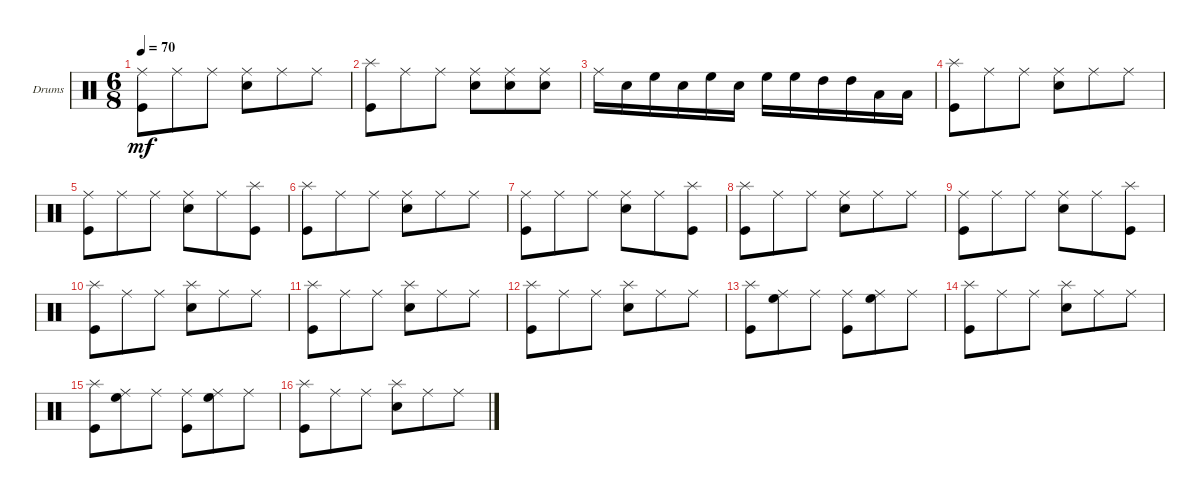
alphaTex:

\defaultSystemsLayout 4
\bracketExtendMode groupsimilarinstruments
\firstSystemTrackNameOrientation horizontal
\otherSystemsTrackNameOrientation horizontal
\track ("Drumkit" "Drums") {instrument percussion}
\staff {score}
\articulation defaults
\ts (6 8)
\tempo 70
\clef neutral
\scale
0.333333
\ks c
("Ride (middle)" "Kick (hit)").8{dy mf} "Ride (middle)".8 "Ride (middle)".8 ("Ride (middle)" "Snare (hit) 2").8 "Ride (middle)".8 "Ride (middle)".8 |
\scale
0.333333 ("Kick (hit)" "Splash (hit)").8 "Ride (middle)".8 "Ride (middle)".8 ("Ride (middle)" "Snare (hit) 2").8 ("Ride (middle)" "Snare (hit) 2").8 ("Ride (middle)" "Snare (hit) 2").8 |
\scale
0.333333 "Ride (middle)".16 "Snare (hit) 2".16 "High Floor Tom (hit)".16 "Snare (hit) 2".16 "High Floor Tom (hit)".16 "Snare (hit) 2".16 "High Floor Tom (hit)".16 "High Floor Tom (hit)".16 "High Tom (hit)".16 "High Tom (hit)".16 "Low Tom (hit)".16 "Low Tom (hit)".16 |
\scale
0.333333 ("Splash (hit)" "Kick (hit)").8 "Ride (middle)".8 "Ride (middle)".8 ("Ride (middle)" "Snare (hit) 2").8 "Ride (middle)".8 "Ride (middle)".8 |
\scale
0.333333 ("Ride (middle)" "Kick (hit)").8 "Ride (middle)".8 "Ride (middle)".8 ("Ride (middle)" "Snare (hit) 2").8 "Ride (middle)".8 ("Kick (hit)" "Splash (hit)").8 |
\scale
0.333333 ("Kick (hit)" "Splash (hit)").8 "Ride (middle)".8 "Ride (middle)".8 ("Ride (middle)" "Snare (hit) 2").8 "Ride (middle)".8 "Ride (middle)".8 |
\scale
0.333333 ("Ride (middle)" "Kick (hit)").8 "Ride (middle)".8 "Ride (middle)".8 ("Ride (middle)" "Snare (hit) 2").8 "Ride (middle)".8 ("Kick (hit)" "Splash (hit)").8 |
\scale
0.333333 ("Kick (hit)" "Splash (hit)").8 "Ride (middle)".8 "Ride (middle)".8 ("Ride (middle)" "Snare (hit) 2").8 "Ride (middle)".8 "Ride (middle)".8 |
\scale
0.333333 ("Ride (middle)" "Kick (hit)").8 "Ride (middle)".8 "Ride (middle)".8 ("Ride (middle)" "Snare (hit) 2").8 "Ride (middle)".8 ("Kick (hit)" "Splash (hit)").8 |
\scale
0.333333 ("Splash (hit)" "Kick (hit)").8 "Ride (middle)".8 "Ride (middle)".8 ("Snare (hit) 2" "Splash (hit)").8 "Ride (middle)".8 "Ride (middle)".8 |
\scale
0.333333 ("Splash (hit)" "Kick (hit)").8 "Ride (middle)".8 "Ride (middle)".8 ("Snare (hit) 2" "Splash (hit)").8 "Ride (middle)".8 "Ride (middle)".8 |
\scale
0.333333 ("Splash (hit)" "Kick (hit)").8 "Ride (middle)".8 "Ride (middle)".8 ("Snare (hit) 2" "Splash (hit)").8 "Ride (middle)".8 "Ride (middle)".8 |
\scale
0.333333 ("Splash (hit)" "Kick (hit)").8 ("Ride (middle)" "High Floor Tom (hit)").8 "Ride (middle)".8 ("Ride (middle)" "Kick (hit)").8 ("High Floor Tom (hit)" "Ride (middle)").8 "Ride (middle)".8 |
\scale
0.333333 ("Splash (hit)" "Kick (hit)").8 "Ride (middle)".8 "Ride (middle)".8 ("Splash (hit)" "Snare (hit) 2").8 "Ride (middle)".8 "Ride (middle)".8 |
\scale
0.333333 ("Splash (hit)" "Kick (hit)").8 ("Ride (middle)" "High Floor Tom (hit)").8 "Ride (middle)".8 ("Ride (middle)" "Kick (hit)").8 ("High Floor Tom (hit)" "Ride (middle)").8 "Ride (middle)".8 |
\scale
0.333333 ("Splash (hit)" "Kick (hit)").8 "Ride (middle)".8 "Ride (middle)".8 ("Splash (hit)" "Snare (hit) 2").8 "Ride (middle)".8 "Ride (middle)".8
